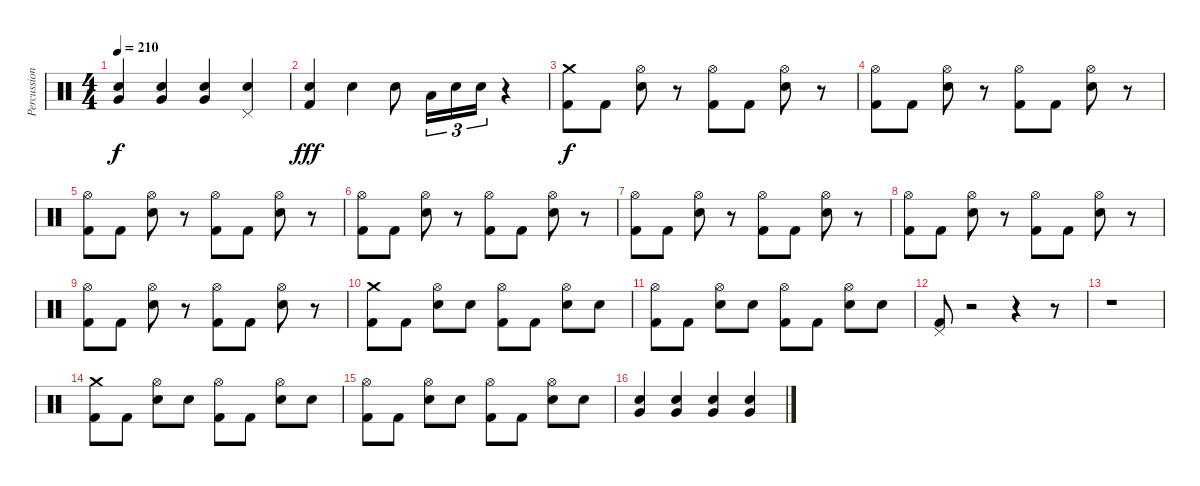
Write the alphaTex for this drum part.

\track ("Percussion" "Percussion") {instrument percussion}
\staff {score}
\articulation defaults
\ts (4 4)
\tempo 210
\clef neutral
\ks c
("Very Low Tom (hit)" "Electric Snare (hit)").4{dy f} ("Very Low Tom (hit)" "Electric Snare (hit)").4 ("Very Low Tom (hit)" "Electric Snare (hit)").4 ("Pedal Hi-Hat (hit)" "Electric Snare (hit)").4 |
("Electric Snare (hit)" "Kick (hit) 2").4{dy fff} "Electric Snare (hit)".4 "Electric Snare (hit)".8 "Low Floor Tom (hit)".16{tu (3 2)} "Electric Snare (hit)".16{tu (3 2)} "Electric Snare (hit)".16{tu (3 2)} r.4 |
("Crash medium (hit)" "Kick (hit) 2").8{dy f} "Kick (hit) 2".8 ("Hi-Hat (open)" "Electric Snare (hit)").8 r.8 ("Hi-Hat (open)" "Kick (hit) 2").8 "Kick (hit) 2".8 ("Hi-Hat (open)" "Electric Snare (hit)").8 r.8 |
("Hi-Hat (open)" "Kick (hit) 2").8 "Kick (hit) 2".8 ("Hi-Hat (open)" "Electric Snare (hit)").8 r.8 ("Hi-Hat (open)" "Kick (hit) 2").8 "Kick (hit) 2".8 ("Hi-Hat (open)" "Electric Snare (hit)").8 r.8 |
("Hi-Hat (open)" "Kick (hit) 2").8 "Kick (hit) 2".8 ("Hi-Hat (open)" "Electric Snare (hit)").8 r.8 ("Hi-Hat (open)" "Kick (hit) 2").8 "Kick (hit) 2".8 ("Hi-Hat (open)" "Electric Snare (hit)").8 r.8 |
("Hi-Hat (open)" "Kick (hit) 2").8 "Kick (hit) 2".8 ("Hi-Hat (open)" "Electric Snare (hit)").8 r.8 ("Hi-Hat (open)" "Kick (hit) 2").8 "Kick (hit) 2".8 ("Hi-Hat (open)" "Electric Snare (hit)").8 r.8 |
("Hi-Hat (open)" "Kick (hit) 2").8 "Kick (hit) 2".8 ("Hi-Hat (open)" "Electric Snare (hit)").8 r.8 ("Hi-Hat (open)" "Kick (hit) 2").8 "Kick (hit) 2".8 ("Hi-Hat (open)" "Electric Snare (hit)").8 r.8 |
("Hi-Hat (open)" "Kick (hit) 2").8 "Kick (hit) 2".8 ("Hi-Hat (open)" "Electric Snare (hit)").8 r.8 ("Hi-Hat (open)" "Kick (hit) 2").8 "Kick (hit) 2".8 ("Hi-Hat (open)" "Electric Snare (hit)").8 r.8 |
("Hi-Hat (open)" "Kick (hit) 2").8 "Kick (hit) 2".8 ("Hi-Hat (open)" "Electric Snare (hit)").8 r.8 ("Hi-Hat (open)" "Kick (hit) 2").8 "Kick (hit) 2".8 ("Hi-Hat (open)" "Electric Snare (hit)").8 r.8 |
("Crash medium (hit)" "Kick (hit) 2").8 "Kick (hit) 2".8 ("Hi-Hat (open)" "Electric Snare (hit)").8 "Electric Snare (hit)".8 ("Hi-Hat (open)" "Kick (hit) 2").8 "Kick (hit) 2".8 ("Hi-Hat (open)" "Electric Snare (hit)").8 "Electric Snare (hit)".8 |
("Hi-Hat (open)" "Kick (hit) 2").8 "Kick (hit) 2".8 ("Hi-Hat (open)" "Electric Snare (hit)").8 "Electric Snare (hit)".8 ("Hi-Hat (open)" "Kick (hit) 2").8 "Kick (hit) 2".8 ("Hi-Hat (open)" "Electric Snare (hit)").8 "Electric Snare (hit)".8 |
("Pedal Hi-Hat (hit)" "Kick (hit) 2").8 r.2 r.4 r.8 |
r.1 |
("Crash medium (hit)" "Kick (hit) 2").8 "Kick (hit) 2".8 ("Hi-Hat (open)" "Electric Snare (hit)").8 "Electric Snare (hit)".8 ("Hi-Hat (open)" "Kick (hit) 2").8 "Kick (hit) 2".8 ("Hi-Hat (open)" "Electric Snare (hit)").8 "Electric Snare (hit)".8 |
("Hi-Hat (open)" "Kick (hit) 2").8 "Kick (hit) 2".8 ("Hi-Hat (open)" "Electric Snare (hit)").8 "Electric Snare (hit)".8 ("Hi-Hat (open)" "Kick (hit) 2").8 "Kick (hit) 2".8 ("Hi-Hat (open)" "Electric Snare (hit)").8 "Electric Snare (hit)".8 |
("Very Low Tom (hit)" "Electric Snare (hit)").4 ("Very Low Tom (hit)" "Electric Snare (hit)").4 ("Very Low Tom (hit)" "Electric Snare (hit)").4 ("Very Low Tom (hit)" "Electric Snare (hit)").4
